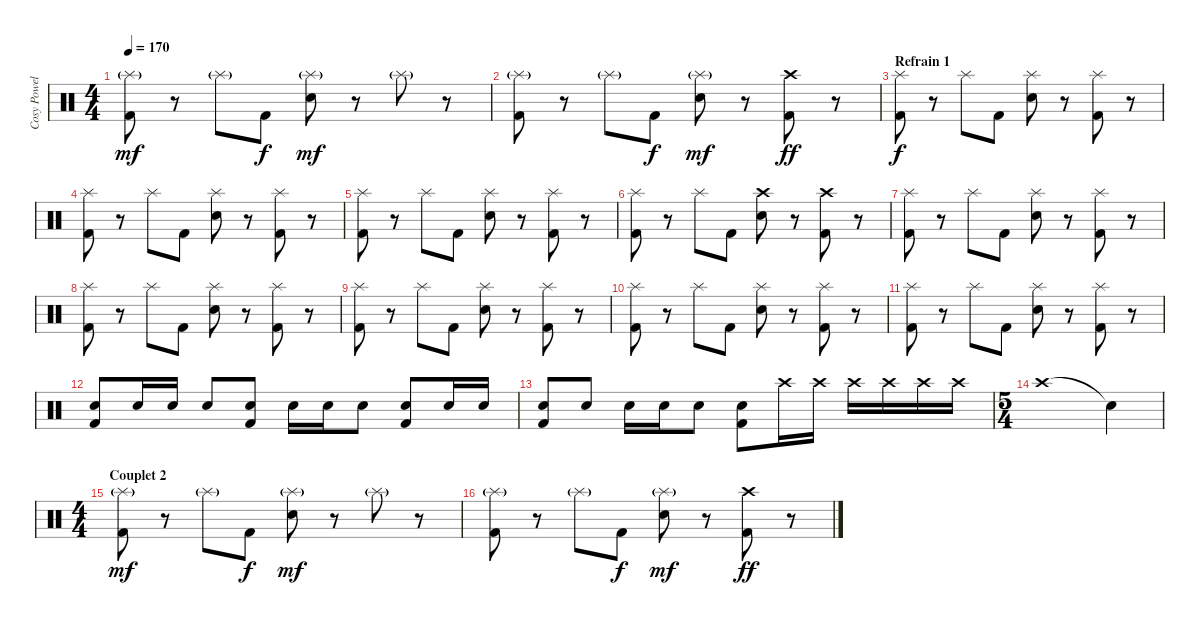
\track ("Cosy Powell" "Cosy Powel") {instrument percussion}
\staff {score}
\articulation defaults
\ts (4 4)
\tempo 170
\clef neutral
\ks c
("Splash (hit)"{g} "Kick (hit) 2").8{dy mf} r.8 "Splash (hit)"{g}.8 "Kick (hit) 2".8{dy f} ("Splash (hit)"{g} "Snare (hit) 2").8{dy mf} r.8 "Splash (hit)"{g}.8 r.8 |
("Splash (hit)"{g} "Kick (hit) 2").8 r.8 "Splash (hit)"{g}.8 "Kick (hit) 2".8{dy f} ("Splash (hit)"{g} "Snare (hit) 2").8{dy mf} r.8 ("Crash high (hit)" "Kick (hit) 2").8{dy ff} r.8 |
\section ("" "Refrain 1")
("Splash (hit)" "Kick (hit) 2").8{dy f} r.8 "Splash (hit)".8 "Kick (hit) 2".8 ("Splash (hit)" "Snare (hit) 2").8 r.8 ("Splash (hit)" "Kick (hit) 2").8 r.8 |
("Splash (hit)" "Kick (hit) 2").8 r.8 "Splash (hit)".8 "Kick (hit) 2".8 ("Splash (hit)" "Snare (hit) 2").8 r.8 ("Splash (hit)" "Kick (hit) 2").8 r.8 |
("Splash (hit)" "Kick (hit) 2").8 r.8 "Splash (hit)".8 "Kick (hit) 2".8 ("Splash (hit)" "Snare (hit) 2").8 r.8 ("Splash (hit)" "Kick (hit) 2").8 r.8 |
("Splash (hit)" "Kick (hit) 2").8 r.8 "Splash (hit)".8 "Kick (hit) 2".8 ("Crash high (hit)" "Snare (hit) 2").8 r.8 ("Crash high (hit)" "Kick (hit) 2").8 r.8 |
("Splash (hit)" "Kick (hit) 2").8 r.8 "Splash (hit)".8 "Kick (hit) 2".8 ("Splash (hit)" "Snare (hit) 2").8 r.8 ("Splash (hit)" "Kick (hit) 2").8 r.8 |
("Splash (hit)" "Kick (hit) 2").8 r.8 "Splash (hit)".8 "Kick (hit) 2".8 ("Splash (hit)" "Snare (hit) 2").8 r.8 ("Splash (hit)" "Kick (hit) 2").8 r.8 |
("Splash (hit)" "Kick (hit) 2").8 r.8 "Splash (hit)".8 "Kick (hit) 2".8 ("Splash (hit)" "Snare (hit) 2").8 r.8 ("Splash (hit)" "Kick (hit) 2").8 r.8 |
("Splash (hit)" "Kick (hit) 2").8 r.8 "Splash (hit)".8 "Kick (hit) 2".8 ("Splash (hit)" "Snare (hit) 2").8 r.8 ("Splash (hit)" "Kick (hit) 2").8 r.8 |
("Splash (hit)" "Kick (hit) 2").8 r.8 "Splash (hit)".8 "Kick (hit) 2".8 ("Splash (hit)" "Snare (hit) 2").8 r.8 ("Splash (hit)" "Kick (hit) 2").8 r.8 |
("Snare (hit) 2" "Kick (hit) 2").8 "Snare (hit) 2".16 "Snare (hit) 2".16 "Snare (hit) 2".8 ("Snare (hit) 2" "Kick (hit) 2").8 "Snare (hit) 2".16 "Snare (hit) 2".16 "Snare (hit) 2".8 ("Snare (hit) 2" "Kick (hit) 2").8 "Snare (hit) 2".16 "Snare (hit) 2".16 |
("Snare (hit) 2" "Kick (hit) 2").8 "Snare (hit) 2".8 "Snare (hit) 2".16 "Snare (hit) 2".16 "Snare (hit) 2".8 ("Snare (hit) 2" "Kick (hit) 2").8 "Crash high (hit)".16 "Crash high (hit)".16 "Crash high (hit)".16 "Crash high (hit)".16 "Crash high (hit)".16 "Crash high (hit)".16 |
\ts (5 4)
"Crash high (hit)".1 "Snare (hit)"{t}.4 |
\ts (4 4)
\section ("" "Couplet 2")
("Splash (hit)"{g} "Kick (hit) 2").8{dy mf} r.8 "Splash (hit)"{g}.8 "Kick (hit) 2".8{dy f} ("Splash (hit)"{g} "Snare (hit) 2").8{dy mf} r.8 "Splash (hit)"{g}.8 r.8 |
("Splash (hit)"{g} "Kick (hit) 2").8 r.8 "Splash (hit)"{g}.8 "Kick (hit) 2".8{dy f} ("Splash (hit)"{g} "Snare (hit) 2").8{dy mf} r.8 ("Crash high (hit)" "Kick (hit) 2").8{dy ff} r.8
